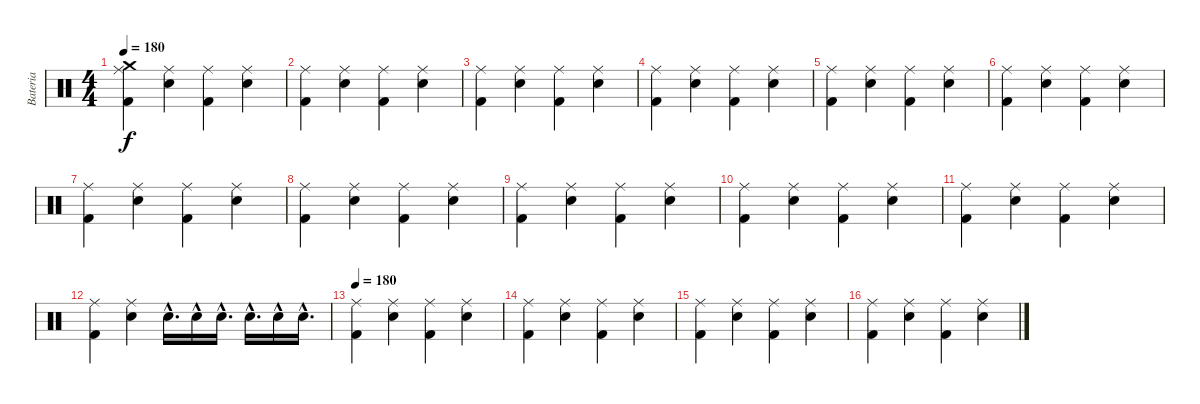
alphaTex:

\track ("Bateria" "Bateria") {instrument percussion}
\staff {score}
\articulation defaults
\ts (4 4)
\tempo 180
\clef neutral
\ks c
("Crash medium (hit)" "Ride (middle)" "Kick (hit) 2").4{dy f} ("Ride (middle)" "Snare (hit) 2").4 ("Ride (middle)" "Kick (hit) 2").4 ("Ride (middle)" "Snare (hit) 2").4 |
("Ride (middle)" "Kick (hit) 2").4 ("Ride (middle)" "Snare (hit) 2").4 ("Ride (middle)" "Kick (hit) 2").4 ("Ride (middle)" "Snare (hit) 2").4 |
("Ride (middle)" "Kick (hit) 2").4 ("Ride (middle)" "Snare (hit) 2").4 ("Ride (middle)" "Kick (hit) 2").4 ("Ride (middle)" "Snare (hit) 2").4 |
("Ride (middle)" "Kick (hit) 2").4 ("Ride (middle)" "Snare (hit) 2").4 ("Ride (middle)" "Kick (hit) 2").4 ("Ride (middle)" "Snare (hit) 2").4 |
("Ride (middle)" "Kick (hit) 2").4 ("Ride (middle)" "Snare (hit) 2").4 ("Ride (middle)" "Kick (hit) 2").4 ("Ride (middle)" "Snare (hit) 2").4 |
("Ride (middle)" "Kick (hit) 2").4 ("Ride (middle)" "Snare (hit) 2").4 ("Ride (middle)" "Kick (hit) 2").4 ("Ride (middle)" "Snare (hit) 2").4 |
("Ride (middle)" "Kick (hit) 2").4 ("Ride (middle)" "Snare (hit) 2").4 ("Ride (middle)" "Kick (hit) 2").4 ("Ride (middle)" "Snare (hit) 2").4 |
("Ride (middle)" "Kick (hit) 2").4 ("Ride (middle)" "Snare (hit) 2").4 ("Ride (middle)" "Kick (hit) 2").4 ("Ride (middle)" "Snare (hit) 2").4 |
("Ride (middle)" "Kick (hit) 2").4 ("Ride (middle)" "Snare (hit) 2").4 ("Ride (middle)" "Kick (hit) 2").4 ("Ride (middle)" "Snare (hit) 2").4 |
("Ride (middle)" "Kick (hit) 2").4 ("Ride (middle)" "Snare (hit) 2").4 ("Ride (middle)" "Kick (hit) 2").4 ("Ride (middle)" "Snare (hit) 2").4 |
("Ride (middle)" "Kick (hit) 2").4 ("Ride (middle)" "Snare (hit) 2").4 ("Ride (middle)" "Kick (hit) 2").4 ("Ride (middle)" "Snare (hit) 2").4 |
("Ride (middle)" "Kick (hit) 2").4 ("Ride (middle)" "Snare (hit) 2").4 "Snare (hit) 2"{hac}.16{d} "Snare (hit) 2"{hac}.16 "Snare (hit) 2"{hac}.16{d} "Snare (hit) 2"{hac}.16{d} "Snare (hit) 2"{hac}.16 "Snare (hit) 2"{hac}.16{d} |
\tempo 180
("Ride (middle)" "Kick (hit) 2").4 ("Ride (middle)" "Snare (hit) 2").4 ("Ride (middle)" "Kick (hit) 2").4 ("Ride (middle)" "Snare (hit) 2").4 |
("Ride (middle)" "Kick (hit) 2").4 ("Ride (middle)" "Snare (hit) 2").4 ("Ride (middle)" "Kick (hit) 2").4 ("Ride (middle)" "Snare (hit) 2").4 |
("Ride (middle)" "Kick (hit) 2").4 ("Ride (middle)" "Snare (hit) 2").4 ("Ride (middle)" "Kick (hit) 2").4 ("Ride (middle)" "Snare (hit) 2").4 |
("Ride (middle)" "Kick (hit) 2").4 ("Ride (middle)" "Snare (hit) 2").4 ("Ride (middle)" "Kick (hit) 2").4 ("Ride (middle)" "Snare (hit) 2").4
